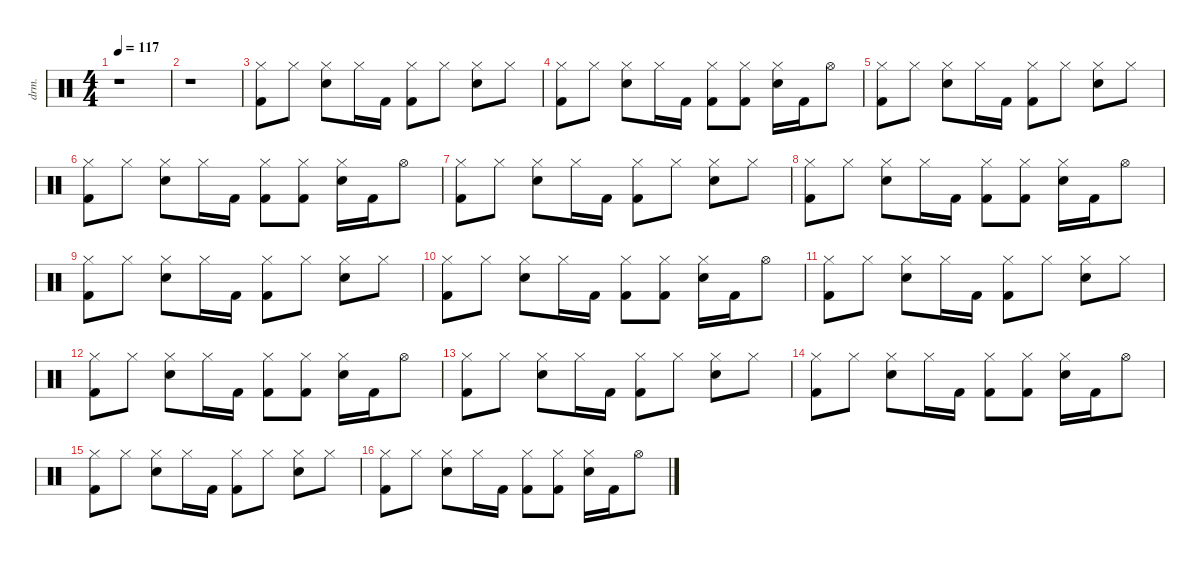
\defaultSystemsLayout 4
\hideDynamics
\bracketExtendMode nobrackets
\track ("Drums" "drm.") {instrument percussion}
\staff {score}
\articulation defaults
\ts (4 4)
\tempo 117
\clef neutral
\ks c
r.1{dy mf beam Down} |
r.1{beam Down} |
("Hi-Hat (closed)" "Kick (hit) 2").8{beam Down} "Hi-Hat (closed)".8{beam Down} ("Hi-Hat (closed)" "Snare (hit) 2").8{beam Down} "Hi-Hat (closed)".16{beam Down} "Kick (hit) 2".16{beam Down} ("Hi-Hat (closed)" "Kick (hit) 2").8{beam Down} "Hi-Hat (closed)".8{beam Down} ("Hi-Hat (closed)" "Snare (hit) 2").8{beam Down} "Hi-Hat (closed)".8{beam Down} |
("Hi-Hat (closed)" "Kick (hit) 2").8{beam Down} "Hi-Hat (closed)".8{beam Down} ("Hi-Hat (closed)" "Snare (hit) 2").8{beam Down} "Hi-Hat (closed)".16{beam Down} "Kick (hit) 2".16{beam Down} ("Hi-Hat (closed)" "Kick (hit) 2").8{beam Down} ("Hi-Hat (closed)" "Kick (hit) 2").8{beam Down} ("Hi-Hat (closed)" "Snare (hit) 2").16{beam Down} "Kick (hit) 2".16{beam Down} "Hi-Hat (open)".8{beam Down} |
("Hi-Hat (closed)" "Kick (hit) 2").8{beam Down} "Hi-Hat (closed)".8{beam Down} ("Hi-Hat (closed)" "Snare (hit) 2").8{beam Down} "Hi-Hat (closed)".16{beam Down} "Kick (hit) 2".16{beam Down} ("Hi-Hat (closed)" "Kick (hit) 2").8{beam Down} "Hi-Hat (closed)".8{beam Down} ("Hi-Hat (closed)" "Snare (hit) 2").8{beam Down} "Hi-Hat (closed)".8{beam Down} |
("Hi-Hat (closed)" "Kick (hit) 2").8{beam Down} "Hi-Hat (closed)".8{beam Down} ("Hi-Hat (closed)" "Snare (hit) 2").8{beam Down} "Hi-Hat (closed)".16{beam Down} "Kick (hit) 2".16{beam Down} ("Hi-Hat (closed)" "Kick (hit) 2").8{beam Down} ("Hi-Hat (closed)" "Kick (hit) 2").8{beam Down} ("Hi-Hat (closed)" "Snare (hit) 2").16{beam Down} "Kick (hit) 2".16{beam Down} "Hi-Hat (open)".8{beam Down} |
("Hi-Hat (closed)" "Kick (hit) 2").8{beam Down} "Hi-Hat (closed)".8{beam Down} ("Hi-Hat (closed)" "Snare (hit) 2").8{beam Down} "Hi-Hat (closed)".16{beam Down} "Kick (hit) 2".16{beam Down} ("Hi-Hat (closed)" "Kick (hit) 2").8{beam Down} "Hi-Hat (closed)".8{beam Down} ("Hi-Hat (closed)" "Snare (hit) 2").8{beam Down} "Hi-Hat (closed)".8{beam Down} |
("Hi-Hat (closed)" "Kick (hit) 2").8{beam Down} "Hi-Hat (closed)".8{beam Down} ("Hi-Hat (closed)" "Snare (hit) 2").8{beam Down} "Hi-Hat (closed)".16{beam Down} "Kick (hit) 2".16{beam Down} ("Hi-Hat (closed)" "Kick (hit) 2").8{beam Down} ("Hi-Hat (closed)" "Kick (hit) 2").8{beam Down} ("Hi-Hat (closed)" "Snare (hit) 2").16{beam Down} "Kick (hit) 2".16{beam Down} "Hi-Hat (open)".8{beam Down} |
("Hi-Hat (closed)" "Kick (hit) 2").8{beam Down} "Hi-Hat (closed)".8{beam Down} ("Hi-Hat (closed)" "Snare (hit) 2").8{beam Down} "Hi-Hat (closed)".16{beam Down} "Kick (hit) 2".16{beam Down} ("Hi-Hat (closed)" "Kick (hit) 2").8{beam Down} "Hi-Hat (closed)".8{beam Down} ("Hi-Hat (closed)" "Snare (hit) 2").8{beam Down} "Hi-Hat (closed)".8{beam Down} |
("Hi-Hat (closed)" "Kick (hit) 2").8{beam Down} "Hi-Hat (closed)".8{beam Down} ("Hi-Hat (closed)" "Snare (hit) 2").8{beam Down} "Hi-Hat (closed)".16{beam Down} "Kick (hit) 2".16{beam Down} ("Hi-Hat (closed)" "Kick (hit) 2").8{beam Down} ("Hi-Hat (closed)" "Kick (hit) 2").8{beam Down} ("Hi-Hat (closed)" "Snare (hit) 2").16{beam Down} "Kick (hit) 2".16{beam Down} "Hi-Hat (open)".8{beam Down} |
("Hi-Hat (closed)" "Kick (hit) 2").8{beam Down} "Hi-Hat (closed)".8{beam Down} ("Hi-Hat (closed)" "Snare (hit) 2").8{beam Down} "Hi-Hat (closed)".16{beam Down} "Kick (hit) 2".16{beam Down} ("Hi-Hat (closed)" "Kick (hit) 2").8{beam Down} "Hi-Hat (closed)".8{beam Down} ("Hi-Hat (closed)" "Snare (hit) 2").8{beam Down} "Hi-Hat (closed)".8{beam Down} |
("Hi-Hat (closed)" "Kick (hit) 2").8{beam Down} "Hi-Hat (closed)".8{beam Down} ("Hi-Hat (closed)" "Snare (hit) 2").8{beam Down} "Hi-Hat (closed)".16{beam Down} "Kick (hit) 2".16{beam Down} ("Hi-Hat (closed)" "Kick (hit) 2").8{beam Down} ("Hi-Hat (closed)" "Kick (hit) 2").8{beam Down} ("Hi-Hat (closed)" "Snare (hit) 2").16{beam Down} "Kick (hit) 2".16{beam Down} "Hi-Hat (open)".8{beam Down} |
("Hi-Hat (closed)" "Kick (hit) 2").8{beam Down} "Hi-Hat (closed)".8{beam Down} ("Hi-Hat (closed)" "Snare (hit) 2").8{beam Down} "Hi-Hat (closed)".16{beam Down} "Kick (hit) 2".16{beam Down} ("Hi-Hat (closed)" "Kick (hit) 2").8{beam Down} "Hi-Hat (closed)".8{beam Down} ("Hi-Hat (closed)" "Snare (hit) 2").8{beam Down} "Hi-Hat (closed)".8{beam Down} |
("Hi-Hat (closed)" "Kick (hit) 2").8{beam Down} "Hi-Hat (closed)".8{beam Down} ("Hi-Hat (closed)" "Snare (hit) 2").8{beam Down} "Hi-Hat (closed)".16{beam Down} "Kick (hit) 2".16{beam Down} ("Hi-Hat (closed)" "Kick (hit) 2").8{beam Down} ("Hi-Hat (closed)" "Kick (hit) 2").8{beam Down} ("Hi-Hat (closed)" "Snare (hit) 2").16{beam Down} "Kick (hit) 2".16{beam Down} "Hi-Hat (open)".8{beam Down} |
("Hi-Hat (closed)" "Kick (hit) 2").8{beam Down} "Hi-Hat (closed)".8{beam Down} ("Hi-Hat (closed)" "Snare (hit) 2").8{beam Down} "Hi-Hat (closed)".16{beam Down} "Kick (hit) 2".16{beam Down} ("Hi-Hat (closed)" "Kick (hit) 2").8{beam Down} "Hi-Hat (closed)".8{beam Down} ("Hi-Hat (closed)" "Snare (hit) 2").8{beam Down} "Hi-Hat (closed)".8{beam Down} |
("Hi-Hat (closed)" "Kick (hit) 2").8{beam Down} "Hi-Hat (closed)".8{beam Down} ("Hi-Hat (closed)" "Snare (hit) 2").8{beam Down} "Hi-Hat (closed)".16{beam Down} "Kick (hit) 2".16{beam Down} ("Hi-Hat (closed)" "Kick (hit) 2").8{beam Down} ("Hi-Hat (closed)" "Kick (hit) 2").8{beam Down} ("Hi-Hat (closed)" "Snare (hit) 2").16{beam Down} "Kick (hit) 2".16{beam Down} "Hi-Hat (open)".8{beam Down}
